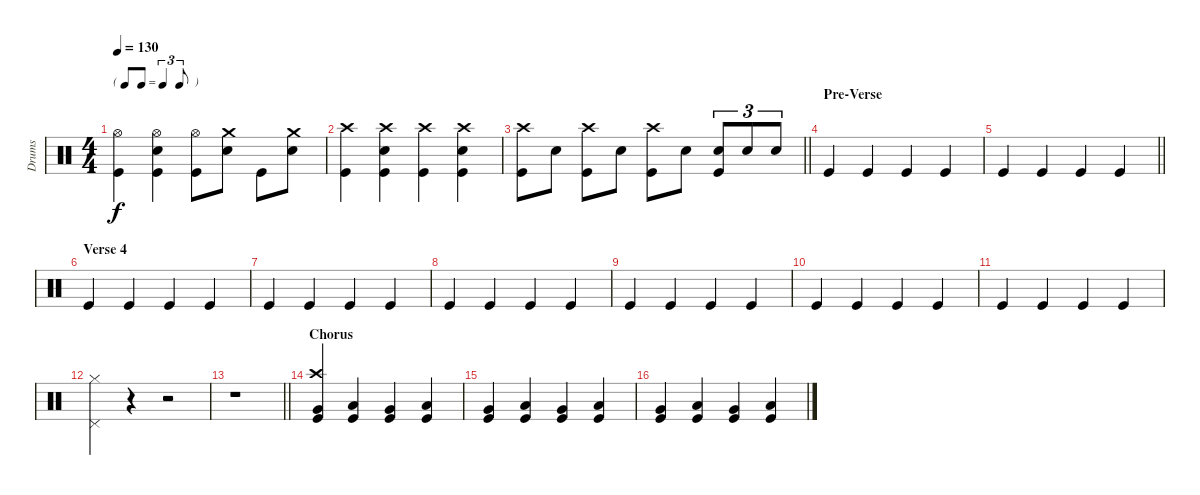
\track ("Drums" "Drums") {instrument percussion}
\staff {score}
\articulation defaults
\ts (4 4)
\tf triplet8th
\tempo 130
\clef neutral
\ks c
("Hi-Hat (open)" "Kick (hit)").4{dy f} ("Hi-Hat (open)" "Snare (hit) 2" "Kick (hit)").4 ("Hi-Hat (open)" "Kick (hit)").8 ("Crash medium (hit)" "Snare (hit) 2").8 "Kick (hit)".8 ("Crash medium (hit)" "Snare (hit) 2").8 |
("Crash high (hit)" "Kick (hit)").4 ("Crash high (hit)" "Snare (hit) 2" "Kick (hit)").4 ("Crash high (hit)" "Kick (hit)").4 ("Crash high (hit)" "Snare (hit) 2" "Kick (hit)").4 |
\barLineRight lightlight
("Crash high (hit)" "Kick (hit)").8 "Snare (hit) 2".8 ("Crash high (hit)" "Kick (hit)").8 "Snare (hit) 2".8 ("Crash high (hit)" "Kick (hit)").8 "Snare (hit) 2".8 ("Kick (hit)" "Snare (hit) 2").8{tu (3 2)} "Snare (hit) 2".8{tu (3 2)} "Snare (hit) 2".8{tu (3 2)} |
\section ("" "Pre-Verse")
"Kick (hit)".4 "Kick (hit)".4 "Kick (hit)".4 "Kick (hit)".4 |
\barLineRight lightlight "Kick (hit)".4 "Kick (hit)".4 "Kick (hit)".4 "Kick (hit)".4
|
\section ("" "Verse 4")
"Kick (hit)".4 "Kick (hit)".4 "Kick (hit)".4 "Kick (hit)".4 |
"Kick (hit)".4 "Kick (hit)".4 "Kick (hit)".4 "Kick (hit)".4 |
"Kick (hit)".4 "Kick (hit)".4 "Kick (hit)".4 "Kick (hit)".4 |
"Kick (hit)".4 "Kick (hit)".4 "Kick (hit)".4 "Kick (hit)".4 |
"Kick (hit)".4 "Kick (hit)".4 "Kick (hit)".4 "Kick (hit)".4 |
"Kick (hit)".4 "Kick (hit)".4 "Kick (hit)".4 "Kick (hit)".4 |
("Hi-Hat (closed)" "Pedal Hi-Hat (hit)").4 r.4 r.2 |
\barLineRight lightlight
r.1 |
\section ("" "Chorus")
("Kick (hit)" "Crash high (hit)" "Very Low Tom (hit)").4 ("Low Tom (hit)" "Kick (hit)").4 ("Kick (hit)" "Very Low Tom (hit)").4 ("Low Tom (hit)" "Kick (hit)").4 |
("Kick (hit)" "Very Low Tom (hit)").4 ("Low Tom (hit)" "Kick (hit)").4 ("Kick (hit)" "Very Low Tom (hit)").4 ("Low Tom (hit)" "Kick (hit)").4 |
("Kick (hit)" "Very Low Tom (hit)").4 ("Low Tom (hit)" "Kick (hit)").4 ("Kick (hit)" "Very Low Tom (hit)").4 ("Low Tom (hit)" "Kick (hit)").4
